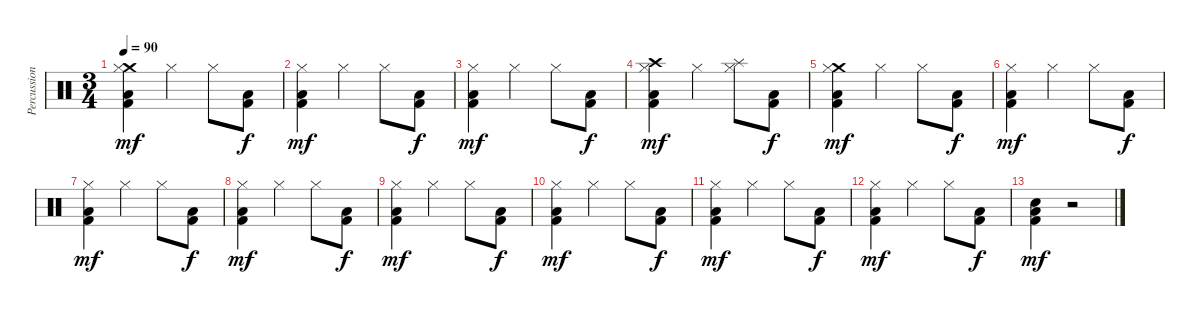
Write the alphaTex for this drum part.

\track ("Percussion" "Percussion") {instrument percussion}
\staff {score}
\articulation defaults
\ts (3 4)
\tempo 90
\clef neutral
\ks c
("Crash medium (hit)" "Hi-Hat (closed)" "Low Floor Tom (hit)" "Kick (hit) 2").4{dy mf} "Hi-Hat (closed)".4 "Hi-Hat (closed)".8 ("Low Floor Tom (hit)" "Kick (hit) 2").8{dy f} |
("Hi-Hat (closed)" "Low Floor Tom (hit)" "Kick (hit) 2").4{dy mf} "Hi-Hat (closed)".4 "Hi-Hat (closed)".8 ("Low Floor Tom (hit)" "Kick (hit) 2").8{dy f} |
("Hi-Hat (closed)" "Low Floor Tom (hit)" "Kick (hit) 2").4{dy mf} "Hi-Hat (closed)".4 "Hi-Hat (closed)".8 ("Low Floor Tom (hit)" "Kick (hit) 2").8{dy f} |
("Crash high (hit)" "Hi-Hat (closed)" "Low Floor Tom (hit)" "Kick (hit) 2").4{dy mf} "Hi-Hat (closed)".4 ("Splash (hit)" "Hi-Hat (closed)").8 ("Low Floor Tom (hit)" "Kick (hit) 2").8{dy f} |
("Crash medium (hit)" "Hi-Hat (closed)" "Low Floor Tom (hit)" "Kick (hit) 2").4{dy mf} "Hi-Hat (closed)".4 "Hi-Hat (closed)".8 ("Low Floor Tom (hit)" "Kick (hit) 2").8{dy f} |
("Hi-Hat (closed)" "Low Floor Tom (hit)" "Kick (hit) 2").4{dy mf} "Hi-Hat (closed)".4 "Hi-Hat (closed)".8 ("Low Floor Tom (hit)" "Kick (hit) 2").8{dy f} |
("Hi-Hat (closed)" "Low Floor Tom (hit)" "Kick (hit) 2").4{dy mf} "Hi-Hat (closed)".4 "Hi-Hat (closed)".8 ("Low Floor Tom (hit)" "Kick (hit) 2").8{dy f} |
("Hi-Hat (closed)" "Low Floor Tom (hit)" "Kick (hit) 2").4{dy mf} "Hi-Hat (closed)".4 "Hi-Hat (closed)".8 ("Low Floor Tom (hit)" "Kick (hit) 2").8{dy f} |
("Hi-Hat (closed)" "Low Floor Tom (hit)" "Kick (hit) 2").4{dy mf} "Hi-Hat (closed)".4 "Hi-Hat (closed)".8 ("Low Floor Tom (hit)" "Kick (hit) 2").8{dy f} |
("Hi-Hat (closed)" "Low Floor Tom (hit)" "Kick (hit) 2").4{dy mf} "Hi-Hat (closed)".4 "Hi-Hat (closed)".8 ("Low Floor Tom (hit)" "Kick (hit) 2").8{dy f} |
("Hi-Hat (closed)" "Low Floor Tom (hit)" "Kick (hit) 2").4{dy mf} "Hi-Hat (closed)".4 "Hi-Hat (closed)".8 ("Low Floor Tom (hit)" "Kick (hit) 2").8{dy f} |
("Hi-Hat (closed)" "Low Floor Tom (hit)" "Kick (hit) 2").4{dy mf} "Hi-Hat (closed)".4 "Hi-Hat (closed)".8 ("Low Floor Tom (hit)" "Kick (hit) 2").8{dy f} |
("Electric Snare (hit)" "Low Floor Tom (hit)" "Kick (hit) 2").4{dy mf} r.2
